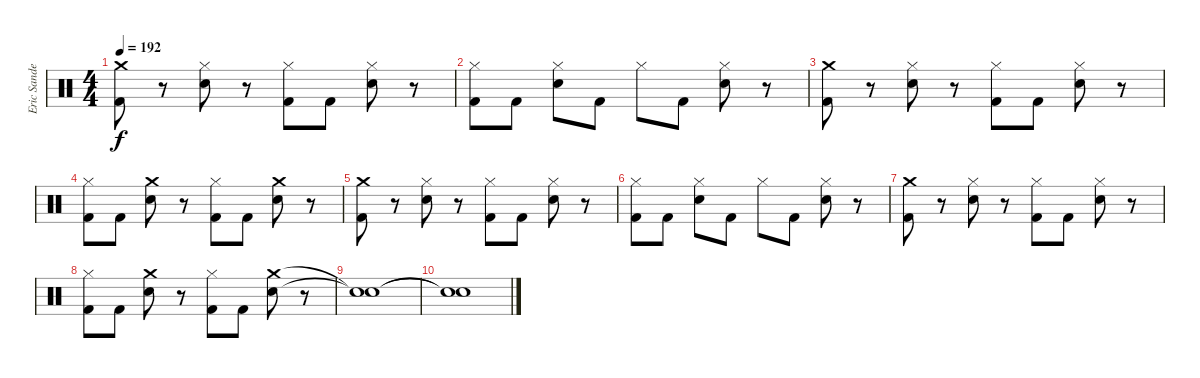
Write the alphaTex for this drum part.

\track ("Eric Sanden" "Eric Sande") {instrument percussion}
\staff {score}
\articulation defaults
\ts (4 4)
\tempo 192
\clef neutral
\ks c
("Crash medium (hit)" "Kick (hit) 2").8{dy f} r.8 ("Hi-Hat (closed)" "Snare (hit) 2").8 r.8 ("Hi-Hat (closed)" "Kick (hit) 2").8 "Kick (hit) 2".8 ("Hi-Hat (closed)" "Snare (hit) 2").8 r.8 |
("Hi-Hat (closed)" "Kick (hit) 2").8 "Kick (hit) 2".8 ("Hi-Hat (closed)" "Snare (hit) 2").8 "Kick (hit) 2".8 "Hi-Hat (closed)".8 "Kick (hit) 2".8 ("Hi-Hat (closed)" "Snare (hit) 2").8 r.8 |
("Crash medium (hit)" "Kick (hit) 2").8 r.8 ("Hi-Hat (closed)" "Snare (hit) 2").8 r.8 ("Hi-Hat (closed)" "Kick (hit) 2").8 "Kick (hit) 2".8 ("Hi-Hat (closed)" "Snare (hit) 2").8 r.8 |
("Hi-Hat (closed)" "Kick (hit) 2").8 "Kick (hit) 2".8 ("Crash medium (hit)" "Snare (hit) 2").8 r.8 ("Hi-Hat (closed)" "Kick (hit) 2").8 "Kick (hit) 2".8 ("Crash medium (hit)" "Snare (hit) 2").8 r.8 |
("Crash medium (hit)" "Kick (hit) 2").8 r.8 ("Hi-Hat (closed)" "Snare (hit) 2").8 r.8 ("Hi-Hat (closed)" "Kick (hit) 2").8 "Kick (hit) 2".8 ("Hi-Hat (closed)" "Snare (hit) 2").8 r.8 |
("Hi-Hat (closed)" "Kick (hit) 2").8 "Kick (hit) 2".8 ("Hi-Hat (closed)" "Snare (hit) 2").8 "Kick (hit) 2".8 "Hi-Hat (closed)".8 "Kick (hit) 2".8 ("Hi-Hat (closed)" "Snare (hit) 2").8 r.8 |
("Crash medium (hit)" "Kick (hit) 2").8 r.8 ("Hi-Hat (closed)" "Snare (hit) 2").8 r.8 ("Hi-Hat (closed)" "Kick (hit) 2").8 "Kick (hit) 2".8 ("Hi-Hat (closed)" "Snare (hit) 2").8 r.8 |
("Hi-Hat (closed)" "Kick (hit) 2").8 "Kick (hit) 2".8 ("Crash medium (hit)" "Snare (hit) 2").8 r.8 ("Hi-Hat (closed)" "Kick (hit) 2").8 "Kick (hit) 2".8 ("Crash medium (hit)" "Snare (hit) 2").8 r.8 |
("Snare (hit)"{t} "Snare (hit)"{t}).1 |
("Snare (hit)"{t} "Snare (hit)"{t}).1
